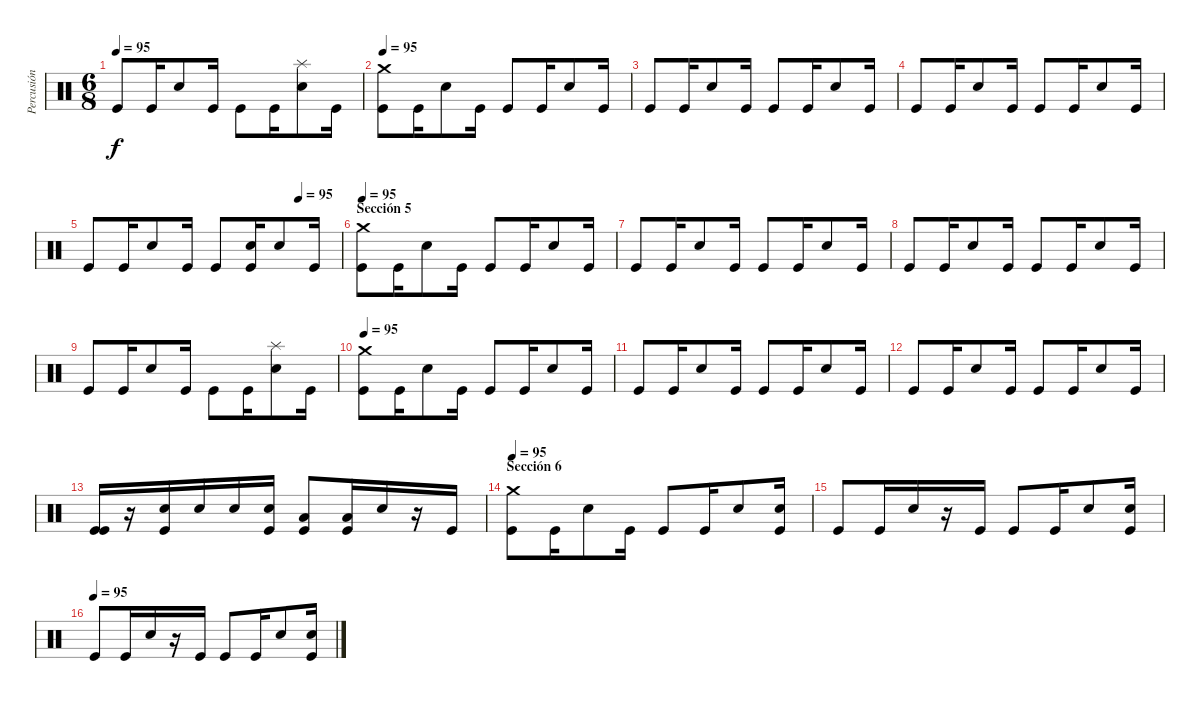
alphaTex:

\track ("Percusión" "Percusión") {instrument percussion}
\staff {score}
\articulation defaults
\ts (6 8)
\tempo 95
\clef neutral
\ks c "Kick (hit)".8{dy f} "Kick (hit)".16 "Electric Snare (hit)".8 "Kick (hit)".16 "Kick (hit)".8 "Kick (hit)".16
("Splash (hit)" "Electric Snare (hit)").8 "Kick (hit)".16 |
\tempo 95
("Crash medium (hit)" "Kick (hit)").8 "Kick (hit)".16 "Electric Snare (hit)".8 "Kick (hit)".16 "Kick (hit)".8 "Kick (hit)".16 "Electric Snare (hit)".8 "Kick (hit)".16 |
"Kick (hit)".8 "Kick (hit)".16 "Electric Snare (hit)".8 "Kick (hit)".16 "Kick (hit)".8 "Kick (hit)".16 "Electric Snare (hit)".8 "Kick (hit)".16 |
"Kick (hit)".8 "Kick (hit)".16 "Electric Snare (hit)".8 "Kick (hit)".16 "Kick (hit)".8 "Kick (hit)".16 "Electric Snare (hit)".8 "Kick (hit)".16 |
\tempo (95 0.8333333333333334)
"Kick (hit)".8 "Kick (hit)".16 "Electric Snare (hit)".8 "Kick (hit)".16 "Kick (hit)".8 ("Electric Snare (hit)" "Kick (hit)").16 "Electric Snare (hit)".8 "Kick (hit)".16 |
\section ("" "Sección 5")
\tempo 95
("Crash medium (hit)" "Kick (hit)").8 "Kick (hit)".16 "Electric Snare (hit)".8 "Kick (hit)".16 "Kick (hit)".8 "Kick (hit)".16 "Electric Snare (hit)".8 "Kick (hit)".16 |
"Kick (hit)".8 "Kick (hit)".16 "Electric Snare (hit)".8 "Kick (hit)".16 "Kick (hit)".8 "Kick (hit)".16 "Electric Snare (hit)".8 "Kick (hit)".16 |
"Kick (hit)".8 "Kick (hit)".16 "Electric Snare (hit)".8 "Kick (hit)".16 "Kick (hit)".8 "Kick (hit)".16 "Electric Snare (hit)".8 "Kick (hit)".16 |
"Kick (hit)".8 "Kick (hit)".16 "Electric Snare (hit)".8 "Kick (hit)".16 "Kick (hit)".8 "Kick (hit)".16 ("Splash (hit)" "Electric Snare (hit)").8 "Kick (hit)".16 |
\tempo 95
("Crash medium (hit)" "Kick (hit)").8 "Kick (hit)".16 "Electric Snare (hit)".8 "Kick (hit)".16 "Kick (hit)".8 "Kick (hit)".16 "Electric Snare (hit)".8 "Kick (hit)".16 |
"Kick (hit)".8 "Kick (hit)".16 "Electric Snare (hit)".8 "Kick (hit)".16 "Kick (hit)".8 "Kick (hit)".16 "Electric Snare (hit)".8 "Kick (hit)".16 |
"Kick (hit)".8 "Kick (hit)".16 "Electric Snare (hit)".8 "Kick (hit)".16 "Kick (hit)".8 "Kick (hit)".16 "Electric Snare (hit)".8 "Kick (hit)".16 |
("Kick (hit)" "Kick (hit)").16 r.16 ("Electric Snare (hit)" "Kick (hit)").16 "Electric Snare (hit)".16 "Electric Snare (hit)".16 ("Electric Snare (hit)" "Kick (hit)").16 ("Low Tom (hit)" "Kick (hit)").8 ("Low Tom (hit)" "Kick (hit)").16 "Electric Snare (hit)".16 r.16 "Kick (hit)".16 |
\section ("" "Sección 6")
\tempo 95
("Crash medium (hit)" "Kick (hit)").8 "Kick (hit)".16 "Electric Snare (hit)".8 "Kick (hit)".16 "Kick (hit)".8 "Kick (hit)".16 "Electric Snare (hit)".8 ("Electric Snare (hit)" "Kick (hit)").16 |
"Kick (hit)".8 "Kick (hit)".16 "Electric Snare (hit)".16 r.16 "Kick (hit)".16 "Kick (hit)".8 "Kick (hit)".16 "Electric Snare (hit)".8 ("Electric Snare (hit)" "Kick (hit)").16 |
\tempo (95)
"Kick (hit)".8 "Kick (hit)".16 "Electric Snare (hit)".16 r.16 "Kick (hit)".16 "Kick (hit)".8 "Kick (hit)".16 "Electric Snare (hit)".8 ("Electric Snare (hit)" "Kick (hit)").16
